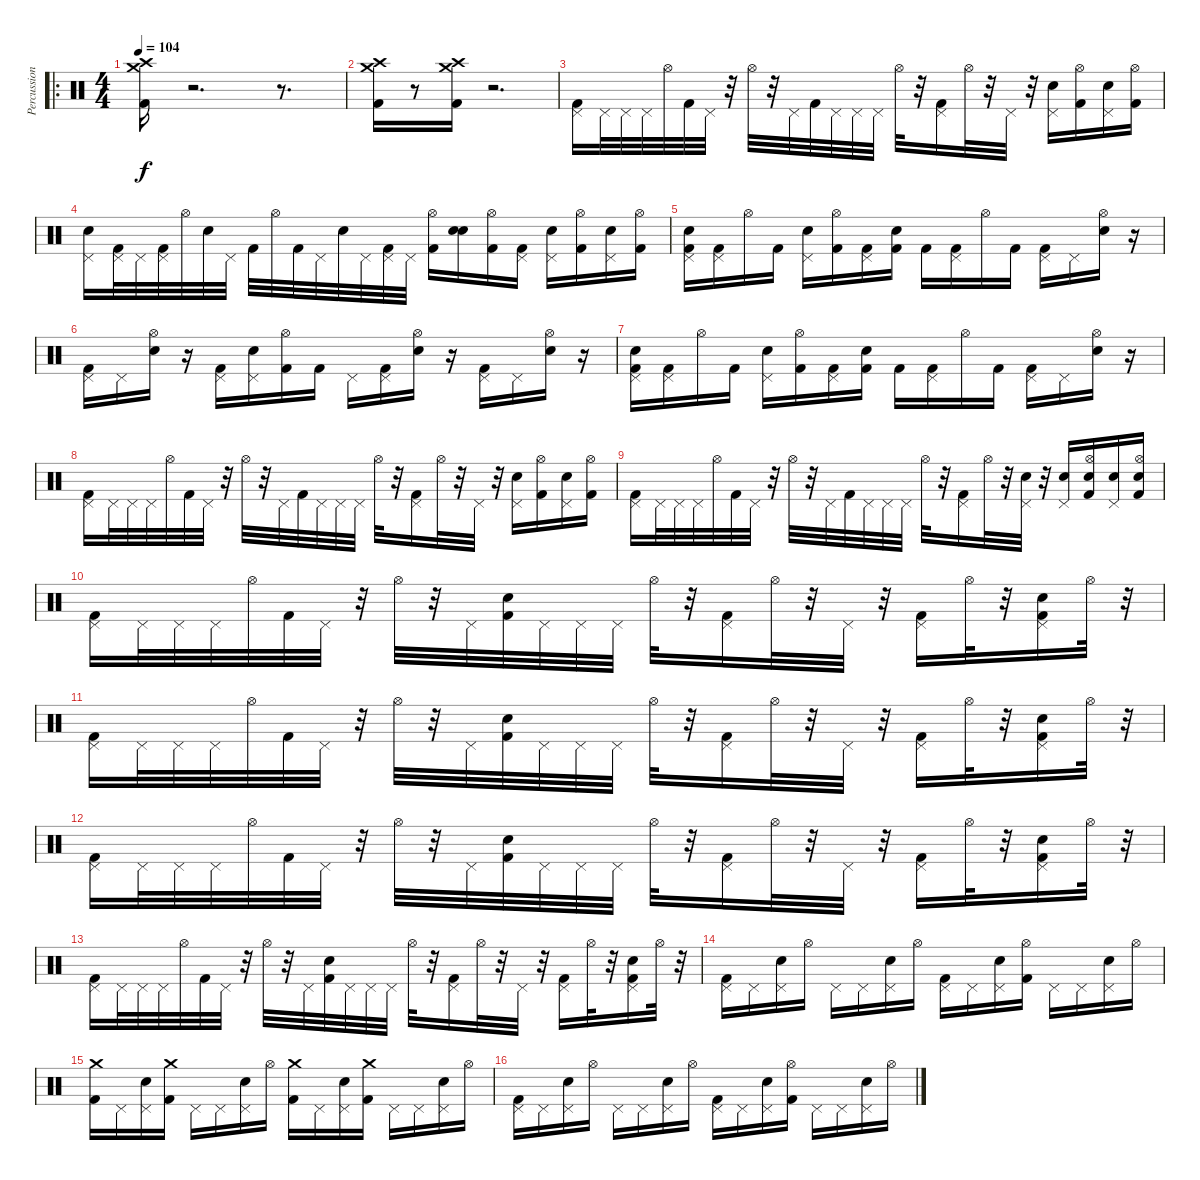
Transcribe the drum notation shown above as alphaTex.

\track ("Percussion" "Percussion") {instrument percussion}
\staff {score}
\articulation defaults
\ro
\ts (4 4)
\tempo 104
\clef neutral
\ks c
("Crash medium (hit)" "Crash high (hit)" "Kick (hit) 2").16{dy f} r.2{d} r.8{d} |
("Crash medium (hit)" "Crash high (hit)" "Kick (hit) 2").16 r.8 ("Crash medium (hit)" "Crash high (hit)" "Kick (hit) 2").16 r.2{d} |
("Pedal Hi-Hat (hit)" "Kick (hit) 2").16 "Pedal Hi-Hat (hit)".32 "Pedal Hi-Hat (hit)".32 "Pedal Hi-Hat (hit)".32 "Hi-Hat (open)".32 "Kick (hit) 2".32 "Pedal Hi-Hat (hit)".32 r.32 "Hi-Hat (open)".32 r.32 "Pedal Hi-Hat (hit)".32 "Kick (hit) 2".32 "Pedal Hi-Hat (hit)".32 "Pedal Hi-Hat (hit)".32 "Pedal Hi-Hat (hit)".32 "Hi-Hat (open)".32 r.32 ("Pedal Hi-Hat (hit)" "Kick (hit) 2").16 "Hi-Hat (open)".32 r.32 "Pedal Hi-Hat (hit)".32 r.32 ("Pedal Hi-Hat (hit)" "Snare (hit) 2").16 ("Hi-Hat (open)" "Kick (hit) 2").16 ("Pedal Hi-Hat (hit)" "Snare (hit) 2").16 ("Hi-Hat (open)" "Kick (hit) 2").16 |
("Pedal Hi-Hat (hit)" "Snare (hit) 2").16 ("Pedal Hi-Hat (hit)" "Kick (hit) 2").32 "Pedal Hi-Hat (hit)".32 ("Pedal Hi-Hat (hit)" "Kick (hit) 2").32 "Hi-Hat (open)".32 "Snare (hit) 2".32 "Pedal Hi-Hat (hit)".32 "Kick (hit) 2".32 "Hi-Hat (open)".32 "Kick (hit) 2".32 "Pedal Hi-Hat (hit)".32 "Snare (hit) 2".32 "Pedal Hi-Hat (hit)".32 ("Pedal Hi-Hat (hit)" "Kick (hit) 2").32 "Pedal Hi-Hat (hit)".32 ("Hi-Hat (open)" "Kick (hit) 2").16 ("Electric Snare (hit)" "Snare (hit) 2").16 ("Hi-Hat (open)" "Kick (hit) 2").16 ("Pedal Hi-Hat (hit)" "Kick (hit) 2").16 ("Pedal Hi-Hat (hit)" "Snare (hit) 2").16 ("Hi-Hat (open)" "Kick (hit) 2").16 ("Pedal Hi-Hat (hit)" "Snare (hit) 2").16 ("Hi-Hat (open)" "Kick (hit) 2").16 |
("Pedal Hi-Hat (hit)" "Snare (hit) 2" "Kick (hit) 2").16 ("Pedal Hi-Hat (hit)" "Kick (hit) 2").16 "Hi-Hat (open)".16 "Kick (hit) 2".16 ("Pedal Hi-Hat (hit)" "Snare (hit) 2").16 ("Hi-Hat (open)" "Kick (hit) 2").16 ("Pedal Hi-Hat (hit)" "Kick (hit) 2").16 ("Snare (hit) 2" "Kick (hit) 2").16 "Kick (hit) 2".16 ("Pedal Hi-Hat (hit)" "Kick (hit) 2").16 "Hi-Hat (open)".16 "Kick (hit) 2".16 ("Pedal Hi-Hat (hit)" "Kick (hit) 2").16 "Pedal Hi-Hat (hit)".16 ("Hi-Hat (open)" "Snare (hit) 2").16 r.16 |
("Pedal Hi-Hat (hit)" "Kick (hit) 2").16 "Pedal Hi-Hat (hit)".16 ("Hi-Hat (open)" "Snare (hit) 2").16 r.16 ("Pedal Hi-Hat (hit)" "Kick (hit) 2").16 ("Pedal Hi-Hat (hit)" "Snare (hit) 2").16 ("Hi-Hat (open)" "Kick (hit) 2").16 "Kick (hit) 2".16 "Pedal Hi-Hat (hit)".16 ("Pedal Hi-Hat (hit)" "Kick (hit) 2").16 ("Hi-Hat (open)" "Snare (hit) 2").16 r.16 ("Pedal Hi-Hat (hit)" "Kick (hit) 2").16 "Pedal Hi-Hat (hit)".16 ("Hi-Hat (open)" "Snare (hit) 2").16 r.16 |
("Pedal Hi-Hat (hit)" "Snare (hit) 2" "Kick (hit) 2").16 ("Pedal Hi-Hat (hit)" "Kick (hit) 2").16 "Hi-Hat (open)".16 "Kick (hit) 2".16 ("Pedal Hi-Hat (hit)" "Snare (hit) 2").16 ("Hi-Hat (open)" "Kick (hit) 2").16 ("Pedal Hi-Hat (hit)" "Kick (hit) 2").16 ("Snare (hit) 2" "Kick (hit) 2").16 "Kick (hit) 2".16 ("Pedal Hi-Hat (hit)" "Kick (hit) 2").16 "Hi-Hat (open)".16 "Kick (hit) 2".16 ("Pedal Hi-Hat (hit)" "Kick (hit) 2").16 "Pedal Hi-Hat (hit)".16 ("Hi-Hat (open)" "Snare (hit) 2").16 r.16 |
("Pedal Hi-Hat (hit)" "Kick (hit) 2").16 "Pedal Hi-Hat (hit)".32 "Pedal Hi-Hat (hit)".32 "Pedal Hi-Hat (hit)".32 "Hi-Hat (open)".32 "Kick (hit) 2".32 "Pedal Hi-Hat (hit)".32 r.32 "Hi-Hat (open)".32 r.32 "Pedal Hi-Hat (hit)".32 "Kick (hit) 2".32 "Pedal Hi-Hat (hit)".32 "Pedal Hi-Hat (hit)".32 "Pedal Hi-Hat (hit)".32 "Hi-Hat (open)".32 r.32 ("Pedal Hi-Hat (hit)" "Kick (hit) 2").16 "Hi-Hat (open)".32 r.32 "Pedal Hi-Hat (hit)".32 r.32 ("Pedal Hi-Hat (hit)" "Snare (hit) 2").16 ("Hi-Hat (open)" "Kick (hit) 2").16 ("Pedal Hi-Hat (hit)" "Snare (hit) 2").16 ("Hi-Hat (open)" "Kick (hit) 2").16 |
("Pedal Hi-Hat (hit)" "Kick (hit) 2").16 "Pedal Hi-Hat (hit)".32 "Pedal Hi-Hat (hit)".32 "Pedal Hi-Hat (hit)".32 "Hi-Hat (open)".32 "Kick (hit) 2".32 "Pedal Hi-Hat (hit)".32 r.32 "Hi-Hat (open)".32 r.32 "Pedal Hi-Hat (hit)".32 "Kick (hit) 2".32 "Pedal Hi-Hat (hit)".32 "Pedal Hi-Hat (hit)".32 "Pedal Hi-Hat (hit)".32 "Hi-Hat (open)".32 r.32 ("Pedal Hi-Hat (hit)" "Kick (hit) 2").16 "Hi-Hat (open)".32 r.32 ("Pedal Hi-Hat (hit)" "Snare (hit) 2").32 r.32 ("Pedal Hi-Hat (hit)" "Snare (hit) 2").16 ("Hi-Hat (open)" "Snare (hit) 2" "Kick (hit) 2").16 ("Pedal Hi-Hat (hit)" "Snare (hit) 2").16 ("Hi-Hat (open)" "Snare (hit) 2" "Kick (hit) 2").16 |
("Pedal Hi-Hat (hit)" "Kick (hit) 2").16 "Pedal Hi-Hat (hit)".32 "Pedal Hi-Hat (hit)".32 "Pedal Hi-Hat (hit)".32 "Hi-Hat (open)".32 "Kick (hit) 2".32 "Pedal Hi-Hat (hit)".32 r.32 "Hi-Hat (open)".32 r.32 "Pedal Hi-Hat (hit)".32 ("Snare (hit) 2" "Kick (hit) 2").32 "Pedal Hi-Hat (hit)".32 "Pedal Hi-Hat (hit)".32 "Pedal Hi-Hat (hit)".32 "Hi-Hat (open)".32 r.32 ("Pedal Hi-Hat (hit)" "Kick (hit) 2").16 "Hi-Hat (open)".32 r.32 "Pedal Hi-Hat (hit)".32 r.32 ("Pedal Hi-Hat (hit)" "Kick (hit) 2").16 "Hi-Hat (open)".32 r.32 ("Pedal Hi-Hat (hit)" "Snare (hit) 2" "Kick (hit) 2").16 "Hi-Hat (open)".32 r.32 |
("Pedal Hi-Hat (hit)" "Kick (hit) 2").16 "Pedal Hi-Hat (hit)".32 "Pedal Hi-Hat (hit)".32 "Pedal Hi-Hat (hit)".32 "Hi-Hat (open)".32 "Kick (hit) 2".32 "Pedal Hi-Hat (hit)".32 r.32 "Hi-Hat (open)".32 r.32 "Pedal Hi-Hat (hit)".32 ("Snare (hit) 2" "Kick (hit) 2").32 "Pedal Hi-Hat (hit)".32 "Pedal Hi-Hat (hit)".32 "Pedal Hi-Hat (hit)".32 "Hi-Hat (open)".32 r.32 ("Pedal Hi-Hat (hit)" "Kick (hit) 2").16 "Hi-Hat (open)".32 r.32 "Pedal Hi-Hat (hit)".32 r.32 ("Pedal Hi-Hat (hit)" "Kick (hit) 2").16 "Hi-Hat (open)".32 r.32 ("Pedal Hi-Hat (hit)" "Snare (hit) 2" "Kick (hit) 2").16 "Hi-Hat (open)".32 r.32 |
("Pedal Hi-Hat (hit)" "Kick (hit) 2").16 "Pedal Hi-Hat (hit)".32 "Pedal Hi-Hat (hit)".32 "Pedal Hi-Hat (hit)".32 "Hi-Hat (open)".32 "Kick (hit) 2".32 "Pedal Hi-Hat (hit)".32 r.32 "Hi-Hat (open)".32 r.32 "Pedal Hi-Hat (hit)".32 ("Snare (hit) 2" "Kick (hit) 2").32 "Pedal Hi-Hat (hit)".32 "Pedal Hi-Hat (hit)".32 "Pedal Hi-Hat (hit)".32 "Hi-Hat (open)".32 r.32 ("Pedal Hi-Hat (hit)" "Kick (hit) 2").16 "Hi-Hat (open)".32 r.32 "Pedal Hi-Hat (hit)".32 r.32 ("Pedal Hi-Hat (hit)" "Kick (hit) 2").16 "Hi-Hat (open)".32 r.32 ("Pedal Hi-Hat (hit)" "Snare (hit) 2" "Kick (hit) 2").16 "Hi-Hat (open)".32 r.32 |
("Pedal Hi-Hat (hit)" "Kick (hit) 2").16 "Pedal Hi-Hat (hit)".32 "Pedal Hi-Hat (hit)".32 "Pedal Hi-Hat (hit)".32 "Hi-Hat (open)".32 "Kick (hit) 2".32 "Pedal Hi-Hat (hit)".32 r.32 "Hi-Hat (open)".32 r.32 "Pedal Hi-Hat (hit)".32 ("Snare (hit) 2" "Kick (hit) 2").32 "Pedal Hi-Hat (hit)".32 "Pedal Hi-Hat (hit)".32 "Pedal Hi-Hat (hit)".32 "Hi-Hat (open)".32 r.32 ("Pedal Hi-Hat (hit)" "Kick (hit) 2").16 "Hi-Hat (open)".32 r.32 "Pedal Hi-Hat (hit)".32 r.32 ("Pedal Hi-Hat (hit)" "Kick (hit) 2").16 "Hi-Hat (open)".32 r.32 ("Pedal Hi-Hat (hit)" "Snare (hit) 2" "Kick (hit) 2").16 "Hi-Hat (open)".32 r.32 |
("Pedal Hi-Hat (hit)" "Kick (hit) 2").16 "Pedal Hi-Hat (hit)".16 ("Pedal Hi-Hat (hit)" "Snare (hit) 2").16 "Hi-Hat (open)".16 "Pedal Hi-Hat (hit)".16 "Pedal Hi-Hat (hit)".16 ("Pedal Hi-Hat (hit)" "Snare (hit) 2").16 "Hi-Hat (open)".16 ("Pedal Hi-Hat (hit)" "Kick (hit) 2").16 "Pedal Hi-Hat (hit)".16 ("Pedal Hi-Hat (hit)" "Snare (hit) 2").16 ("Hi-Hat (open)" "Kick (hit) 2").16 "Pedal Hi-Hat (hit)".16 "Pedal Hi-Hat (hit)".16 ("Pedal Hi-Hat (hit)" "Snare (hit) 2").16 "Hi-Hat (open)".16 |
("Crash medium (hit)" "Kick (hit) 2").16 "Pedal Hi-Hat (hit)".16 ("Pedal Hi-Hat (hit)" "Snare (hit) 2").16 ("Crash medium (hit)" "Kick (hit) 2").16 "Pedal Hi-Hat (hit)".16 "Pedal Hi-Hat (hit)".16 ("Pedal Hi-Hat (hit)" "Snare (hit) 2").16 "Hi-Hat (open)".16 ("Crash medium (hit)" "Kick (hit) 2").16 "Pedal Hi-Hat (hit)".16 ("Pedal Hi-Hat (hit)" "Snare (hit) 2").16 ("Crash medium (hit)" "Kick (hit) 2").16 "Pedal Hi-Hat (hit)".16 "Pedal Hi-Hat (hit)".16 ("Pedal Hi-Hat (hit)" "Snare (hit) 2").16 "Hi-Hat (open)".16 |
("Pedal Hi-Hat (hit)" "Kick (hit) 2").16 "Pedal Hi-Hat (hit)".16 ("Pedal Hi-Hat (hit)" "Snare (hit) 2").16 "Hi-Hat (open)".16 "Pedal Hi-Hat (hit)".16 "Pedal Hi-Hat (hit)".16 ("Pedal Hi-Hat (hit)" "Snare (hit) 2").16 "Hi-Hat (open)".16 ("Pedal Hi-Hat (hit)" "Kick (hit) 2").16 "Pedal Hi-Hat (hit)".16 ("Pedal Hi-Hat (hit)" "Snare (hit) 2").16 ("Hi-Hat (open)" "Kick (hit) 2").16 "Pedal Hi-Hat (hit)".16 "Pedal Hi-Hat (hit)".16 ("Pedal Hi-Hat (hit)" "Snare (hit) 2").16 "Hi-Hat (open)".16
